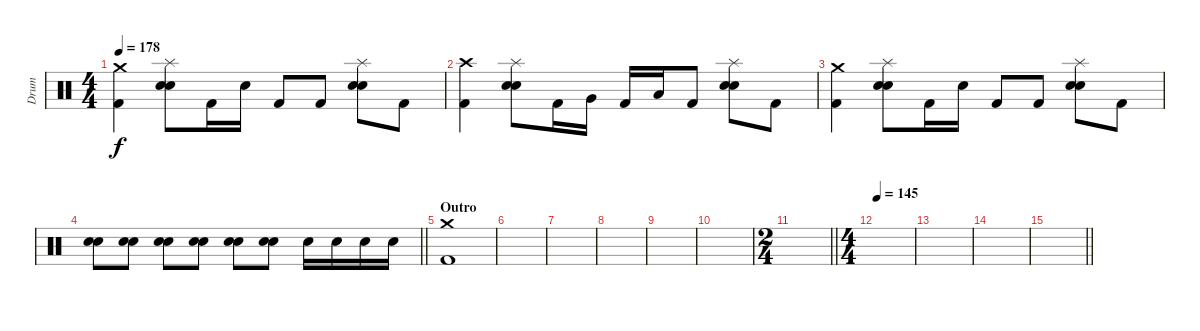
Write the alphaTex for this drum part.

\track ("Drum" "Drum") {instrument percussion}
\staff {score}
\articulation defaults
\ts (4 4)
\tempo 178
\clef neutral
\ks c
("Crash medium (hit)" "Kick (hit) 2").4{dy f} ("Splash (hit)" "Electric Snare (hit)" "Snare (hit) 2").8 "Kick (hit) 2".16 "Electric Snare (hit)".16 "Kick (hit) 2".8 "Kick (hit) 2".8 ("Splash (hit)" "Electric Snare (hit)" "Snare (hit) 2").8 "Kick (hit) 2".8 |
("Crash high (hit)" "Kick (hit) 2").4 ("Splash (hit)" "Electric Snare (hit)" "Snare (hit) 2").8 "Kick (hit) 2".16 "Very Low Tom (hit)".16 "Kick (hit) 2".16 "Low Floor Tom (hit)".16 "Kick (hit) 2".8 ("Splash (hit)" "Electric Snare (hit)" "Snare (hit) 2").8 "Kick (hit) 2".8 |
("Crash medium (hit)" "Kick (hit) 2").4 ("Splash (hit)" "Electric Snare (hit)" "Snare (hit) 2").8 "Kick (hit) 2".16 "Electric Snare (hit)".16 "Kick (hit) 2".8 "Kick (hit) 2".8 ("Splash (hit)" "Electric Snare (hit)" "Snare (hit) 2").8 "Kick (hit) 2".8 |
\barLineRight lightlight
("Electric Snare (hit)" "Snare (hit) 2").8 ("Electric Snare (hit)" "Snare (hit) 2").8 ("Electric Snare (hit)" "Snare (hit) 2").8 ("Electric Snare (hit)" "Snare (hit) 2").8 ("Electric Snare (hit)" "Snare (hit) 2").8 ("Electric Snare (hit)" "Snare (hit) 2").8 "Electric Snare (hit)".16 "Electric Snare (hit)".16 "Electric Snare (hit)".16 "Electric Snare (hit)".16 |
\section ("" "Outro")
("Crash medium (hit)" "Kick (hit) 2").1 |
|
|
|
|
|
\ts (2 4)
\barLineRight lightlight
|
\ts (4 4)
\tempo 145
|
|
|
\barLineRight lightlight
